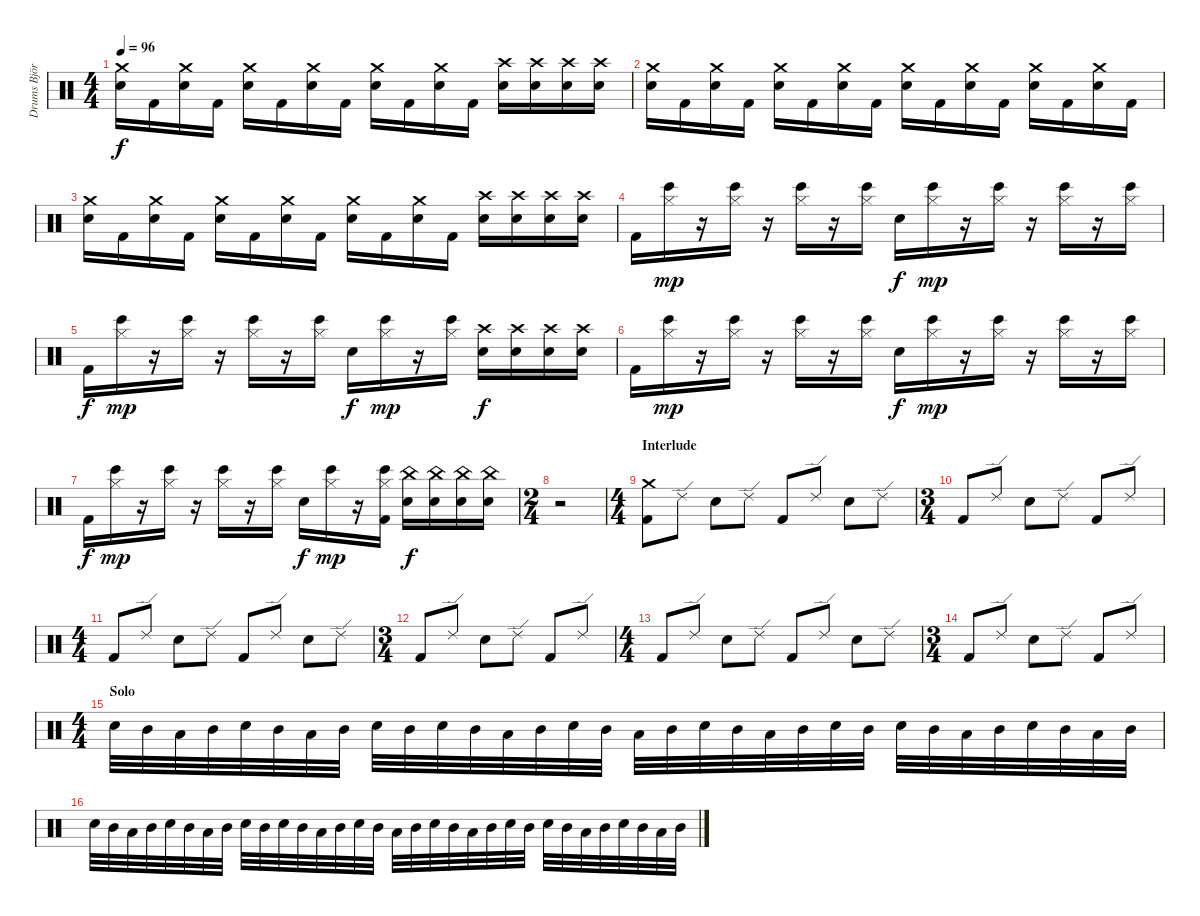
\track ("Drums Björn Fryklund" "Drums Björ") {instrument percussion}
\staff {score}
\articulation defaults
\ts (4 4)
\tempo 96
\clef neutral
\ks c
("Crash medium (hit)" "Snare (hit) 2").16{dy f} "Kick (hit) 2".16 ("Crash medium (hit)" "Snare (hit) 2").16 "Kick (hit) 2".16 ("Crash medium (hit)" "Snare (hit) 2").16 "Kick (hit) 2".16 ("Crash medium (hit)" "Snare (hit) 2").16 "Kick (hit) 2".16 ("Crash medium (hit)" "Snare (hit) 2").16 "Kick (hit) 2".16 ("Crash medium (hit)" "Snare (hit) 2").16 "Kick (hit) 2".16 ("Crash high (hit)" "Snare (hit) 2").16 ("Crash high (hit)" "Snare (hit) 2").16 ("Crash high (hit)" "Snare (hit) 2").16 ("Crash high (hit)" "Snare (hit) 2").16 |
("Crash medium (hit)" "Snare (hit) 2").16 "Kick (hit) 2".16 ("Crash medium (hit)" "Snare (hit) 2").16 "Kick (hit) 2".16 ("Crash medium (hit)" "Snare (hit) 2").16 "Kick (hit) 2".16 ("Crash medium (hit)" "Snare (hit) 2").16 "Kick (hit) 2".16 ("Crash medium (hit)" "Snare (hit) 2").16 "Kick (hit) 2".16 ("Crash medium (hit)" "Snare (hit) 2").16 "Kick (hit) 2".16 ("Crash medium (hit)" "Snare (hit) 2").16 "Kick (hit) 2".16 ("Crash medium (hit)" "Snare (hit) 2").16 "Kick (hit) 2".16 |
("Crash medium (hit)" "Snare (hit) 2").16 "Kick (hit) 2".16 ("Crash medium (hit)" "Snare (hit) 2").16 "Kick (hit) 2".16 ("Crash medium (hit)" "Snare (hit) 2").16 "Kick (hit) 2".16 ("Crash medium (hit)" "Snare (hit) 2").16 "Kick (hit) 2".16 ("Crash medium (hit)" "Snare (hit) 2").16 "Kick (hit) 2".16 ("Crash medium (hit)" "Snare (hit) 2").16 "Kick (hit) 2".16 ("Crash high (hit)" "Snare (hit) 2").16 ("Crash high (hit)" "Snare (hit) 2").16 ("Crash high (hit)" "Snare (hit) 2").16 ("Crash high (hit)" "Snare (hit) 2").16 |
"Kick (hit) 2".16 ("Hi-Hat (closed)" "Bongo High (hit)").16{dy mp} r.16 ("Hi-Hat (closed)" "Bongo High (hit)").16 r.16 ("Hi-Hat (closed)" "Bongo High (hit)").16 r.16 ("Hi-Hat (closed)" "Bongo High (hit)").16 "Snare (hit) 2".16{dy f} ("Hi-Hat (closed)" "Bongo High (hit)").16{dy mp} r.16 ("Hi-Hat (closed)" "Bongo High (hit)").16 r.16 ("Hi-Hat (closed)" "Bongo High (hit)").16 r.16 ("Hi-Hat (closed)" "Bongo High (hit)").16 |
"Kick (hit) 2".16{dy f} ("Hi-Hat (closed)" "Bongo High (hit)").16{dy mp} r.16 ("Hi-Hat (closed)" "Bongo High (hit)").16 r.16 ("Hi-Hat (closed)" "Bongo High (hit)").16 r.16 ("Hi-Hat (closed)" "Bongo High (hit)").16 "Snare (hit) 2".16{dy f} ("Hi-Hat (closed)" "Bongo High (hit)").16{dy mp} r.16 ("Hi-Hat (closed)" "Bongo High (hit)").16 ("Crash high (hit)" "Snare (hit) 2").16{dy f} ("Crash high (hit)" "Snare (hit) 2").16 ("Crash high (hit)" "Snare (hit) 2").16 ("Crash high (hit)" "Snare (hit) 2").16 |
"Kick (hit) 2".16 ("Hi-Hat (closed)" "Bongo High (hit)").16{dy mp} r.16 ("Hi-Hat (closed)" "Bongo High (hit)").16 r.16 ("Hi-Hat (closed)" "Bongo High (hit)").16 r.16 ("Hi-Hat (closed)" "Bongo High (hit)").16 "Snare (hit) 2".16{dy f} ("Hi-Hat (closed)" "Bongo High (hit)").16{dy mp} r.16 ("Hi-Hat (closed)" "Bongo High (hit)").16 r.16 ("Hi-Hat (closed)" "Bongo High (hit)").16 r.16 ("Hi-Hat (closed)" "Bongo High (hit)").16 |
"Kick (hit) 2".16{dy f} ("Hi-Hat (closed)" "Bongo High (hit)").16{dy mp} r.16 ("Hi-Hat (closed)" "Bongo High (hit)").16 r.16 ("Hi-Hat (closed)" "Bongo High (hit)").16 r.16 ("Hi-Hat (closed)" "Bongo High (hit)").16 "Snare (hit) 2".16{dy f} ("Hi-Hat (closed)" "Bongo High (hit)").16{dy mp} r.16 ("Hi-Hat (closed)" "Bongo High (hit)" "Kick (hit) 2").16 ("China (hit)" "Snare (hit) 2").16{dy f} ("China (hit)" "Snare (hit) 2").16 ("China (hit)" "Snare (hit) 2").16 ("China (hit)" "Snare (hit) 2").16 |
\ts (2 4)
r.2 |
\ts (4 4)
\section ("" "Interlude")
("Crash medium (hit)" "Kick (hit) 2").8 "Ride (edge) 2".8 "Snare (hit) 2".8 "Ride (edge) 2".8 "Kick (hit) 2".8 "Ride (edge) 2".8 "Snare (hit) 2".8 "Ride (edge) 2".8 |
\ts (3 4)
"Kick (hit) 2".8 "Ride (edge) 2".8 "Snare (hit) 2".8 "Ride (edge) 2".8 "Kick (hit) 2".8 "Ride (edge) 2".8 |
\ts (4 4)
"Kick (hit) 2".8 "Ride (edge) 2".8 "Snare (hit) 2".8 "Ride (edge) 2".8 "Kick (hit) 2".8 "Ride (edge) 2".8 "Snare (hit) 2".8 "Ride (edge) 2".8 |
\ts (3 4)
"Kick (hit) 2".8 "Ride (edge) 2".8 "Snare (hit) 2".8 "Ride (edge) 2".8 "Kick (hit) 2".8 "Ride (edge) 2".8 |
\ts (4 4)
"Kick (hit) 2".8 "Ride (edge) 2".8 "Snare (hit) 2".8 "Ride (edge) 2".8 "Kick (hit) 2".8 "Ride (edge) 2".8 "Snare (hit) 2".8 "Ride (edge) 2".8 |
\ts (3 4)
"Kick (hit) 2".8 "Ride (edge) 2".8 "Snare (hit) 2".8 "Ride (edge) 2".8 "Kick (hit) 2".8 "Ride (edge) 2".8 |
\ts (4 4)
\section ("" "Solo")
"Snare (hit) 2".32 "Mid Tom (hit)".32 "Low Tom (hit)".32 "Mid Tom (hit)".32 "Snare (hit) 2".32 "Mid Tom (hit)".32 "Low Tom (hit)".32 "Mid Tom (hit)".32 "Snare (hit) 2".32 "Mid Tom (hit)".32 "Snare (hit) 2".32 "Mid Tom (hit)".32 "Low Tom (hit)".32 "Mid Tom (hit)".32 "Snare (hit) 2".32 "Mid Tom (hit)".32 "Low Tom (hit)".32 "Mid Tom (hit)".32 "Snare (hit) 2".32 "Mid Tom (hit)".32 "Low Tom (hit)".32 "Mid Tom (hit)".32 "Snare (hit) 2".32 "Mid Tom (hit)".32 "Snare (hit) 2".32 "Mid Tom (hit)".32 "Low Tom (hit)".32 "Mid Tom (hit)".32 "Snare (hit) 2".32 "Mid Tom (hit)".32 "Low Tom (hit)".32 "Mid Tom (hit)".32 |
"Snare (hit) 2".32 "Mid Tom (hit)".32 "Low Tom (hit)".32 "Mid Tom (hit)".32 "Snare (hit) 2".32 "Mid Tom (hit)".32 "Low Tom (hit)".32 "Mid Tom (hit)".32 "Snare (hit) 2".32 "Mid Tom (hit)".32 "Snare (hit) 2".32 "Mid Tom (hit)".32 "Low Tom (hit)".32 "Mid Tom (hit)".32 "Snare (hit) 2".32 "Mid Tom (hit)".32 "Low Tom (hit)".32 "Mid Tom (hit)".32 "Snare (hit) 2".32 "Mid Tom (hit)".32 "Low Tom (hit)".32 "Mid Tom (hit)".32 "Snare (hit) 2".32 "Mid Tom (hit)".32 "Snare (hit) 2".32 "Mid Tom (hit)".32 "Low Tom (hit)".32 "Mid Tom (hit)".32 "Snare (hit) 2".32 "Mid Tom (hit)".32 "Low Tom (hit)".32 "Mid Tom (hit)".32
